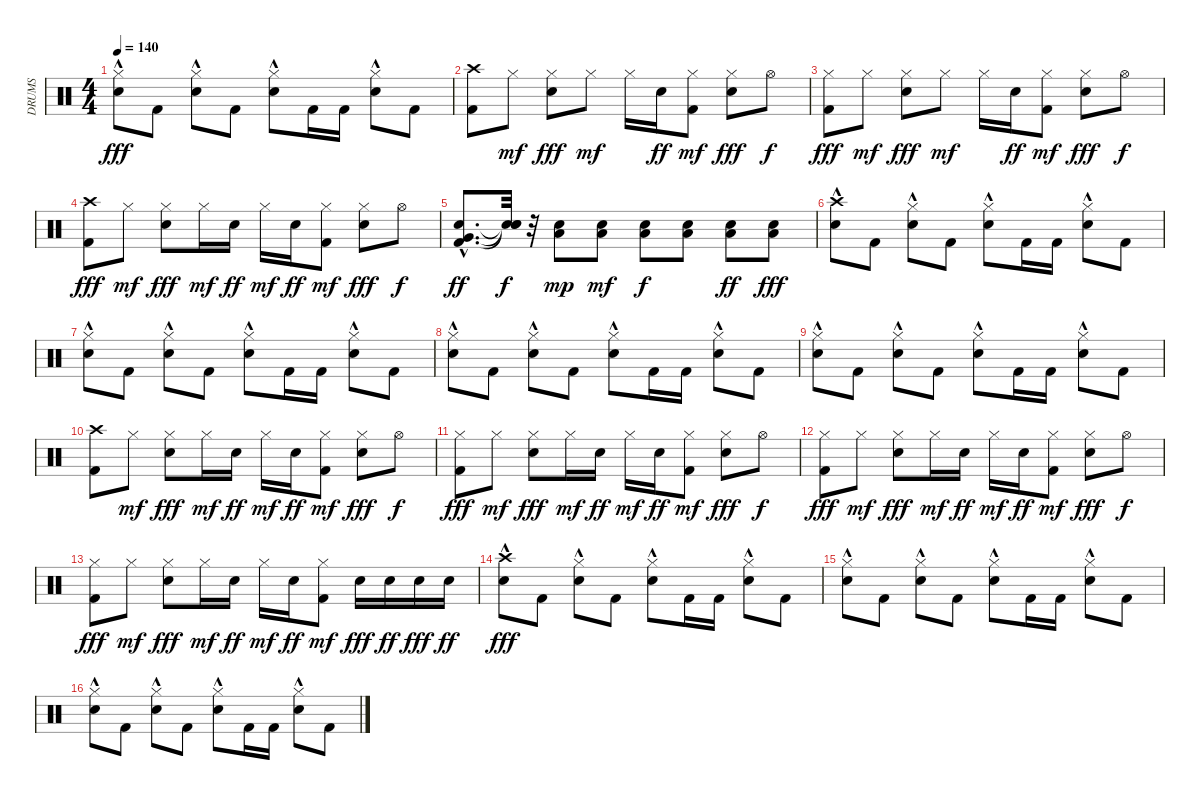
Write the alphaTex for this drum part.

\track ("DRUMS" "DRUMS") {instrument percussion}
\staff {score}
\articulation defaults
\ts (4 4)
\tempo 140
\clef neutral
\ks c
("Electric Snare (hit)"{hac} "Hi-Hat (closed)"{hac}).8{dy fff} "Kick (hit) 2".8 ("Electric Snare (hit)"{hac} "Hi-Hat (closed)"{hac}).8 "Kick (hit) 2".8 ("Electric Snare (hit)"{hac} "Hi-Hat (closed)"{hac}).8 "Kick (hit) 2".16 "Kick (hit) 2".16 ("Electric Snare (hit)"{hac} "Hi-Hat (closed)"{hac}).8 "Kick (hit) 2".8 |
("Kick (hit) 2" "Crash high (hit)").8 "Hi-Hat (closed)".8{dy mf} ("Hi-Hat (closed)" "Electric Snare (hit)").8{dy fff} "Hi-Hat (closed)".8{dy mf} "Hi-Hat (closed)".16 "Electric Snare (hit)".16{dy ff} ("Kick (hit) 2" "Hi-Hat (closed)").8{dy mf} ("Hi-Hat (closed)" "Electric Snare (hit)").8{dy fff} "Hi-Hat (open)".8{dy f} |
("Kick (hit) 2" "Hi-Hat (closed)").8{dy fff} "Hi-Hat (closed)".8{dy mf} ("Hi-Hat (closed)" "Electric Snare (hit)").8{dy fff} "Hi-Hat (closed)".8{dy mf} "Hi-Hat (closed)".16 "Electric Snare (hit)".16{dy ff} ("Kick (hit) 2" "Hi-Hat (closed)").8{dy mf} ("Hi-Hat (closed)" "Electric Snare (hit)").8{dy fff} "Hi-Hat (open)".8{dy f} |
("Kick (hit) 2" "Crash high (hit)").8{dy fff} "Hi-Hat (closed)".8{dy mf} ("Hi-Hat (closed)" "Electric Snare (hit)").8{dy fff} "Hi-Hat (closed)".16{dy mf} "Electric Snare (hit)".16{dy ff} "Hi-Hat (closed)".16{dy mf} "Electric Snare (hit)".16{dy ff} ("Kick (hit) 2" "Hi-Hat (closed)").8{dy mf} ("Hi-Hat (closed)" "Electric Snare (hit)").8{dy fff} "Hi-Hat (open)".8{dy f} |
("Kick (hit) 2"{hac} "Electric Snare (hit)"{hac} "Very Low Tom (hit)"{hac}).8{d dy ff} ("Snare (hit)"{t} "Snare (hit)"{t} "Snare (hit)"{t}).32{dy f} r.32 ("Low Tom (hit)" "Electric Snare (hit)").8{dy mp} ("Low Tom (hit)" "Electric Snare (hit)").8{dy mf} ("Low Tom (hit)" "Electric Snare (hit)").8{dy f} ("Low Tom (hit)" "Electric Snare (hit)").8 ("Low Tom (hit)" "Electric Snare (hit)").8{dy ff} ("Low Tom (hit)" "Electric Snare (hit)").8{dy fff} |
("Electric Snare (hit)"{hac} "Crash high (hit)"{hac}).8 "Kick (hit) 2".8 ("Electric Snare (hit)"{hac} "Hi-Hat (closed)"{hac}).8 "Kick (hit) 2".8 ("Electric Snare (hit)"{hac} "Hi-Hat (closed)"{hac}).8 "Kick (hit) 2".16 "Kick (hit) 2".16 ("Electric Snare (hit)"{hac} "Hi-Hat (closed)"{hac}).8 "Kick (hit) 2".8 |
("Electric Snare (hit)"{hac} "Hi-Hat (closed)"{hac}).8 "Kick (hit) 2".8 ("Electric Snare (hit)"{hac} "Hi-Hat (closed)"{hac}).8 "Kick (hit) 2".8 ("Electric Snare (hit)"{hac} "Hi-Hat (closed)"{hac}).8 "Kick (hit) 2".16 "Kick (hit) 2".16 ("Electric Snare (hit)"{hac} "Hi-Hat (closed)"{hac}).8 "Kick (hit) 2".8 |
("Electric Snare (hit)"{hac} "Hi-Hat (closed)"{hac}).8 "Kick (hit) 2".8 ("Electric Snare (hit)"{hac} "Hi-Hat (closed)"{hac}).8 "Kick (hit) 2".8 ("Electric Snare (hit)"{hac} "Hi-Hat (closed)"{hac}).8 "Kick (hit) 2".16 "Kick (hit) 2".16 ("Electric Snare (hit)"{hac} "Hi-Hat (closed)"{hac}).8 "Kick (hit) 2".8 |
("Electric Snare (hit)"{hac} "Hi-Hat (closed)"{hac}).8 "Kick (hit) 2".8 ("Electric Snare (hit)"{hac} "Hi-Hat (closed)"{hac}).8 "Kick (hit) 2".8 ("Electric Snare (hit)"{hac} "Hi-Hat (closed)"{hac}).8 "Kick (hit) 2".16 "Kick (hit) 2".16 ("Electric Snare (hit)"{hac} "Hi-Hat (closed)"{hac}).8 "Kick (hit) 2".8 |
("Kick (hit) 2" "Crash high (hit)").8 "Hi-Hat (closed)".8{dy mf} ("Hi-Hat (closed)" "Electric Snare (hit)").8{dy fff} "Hi-Hat (closed)".16{dy mf} "Electric Snare (hit)".16{dy ff} "Hi-Hat (closed)".16{dy mf} "Electric Snare (hit)".16{dy ff} ("Kick (hit) 2" "Hi-Hat (closed)").8{dy mf} ("Hi-Hat (closed)" "Electric Snare (hit)").8{dy fff} "Hi-Hat (open)".8{dy f} |
("Kick (hit) 2" "Hi-Hat (closed)").8{dy fff} "Hi-Hat (closed)".8{dy mf} ("Hi-Hat (closed)" "Electric Snare (hit)").8{dy fff} "Hi-Hat (closed)".16{dy mf} "Electric Snare (hit)".16{dy ff} "Hi-Hat (closed)".16{dy mf} "Electric Snare (hit)".16{dy ff} ("Kick (hit) 2" "Hi-Hat (closed)").8{dy mf} ("Hi-Hat (closed)" "Electric Snare (hit)").8{dy fff} "Hi-Hat (open)".8{dy f} |
("Kick (hit) 2" "Hi-Hat (closed)").8{dy fff} "Hi-Hat (closed)".8{dy mf} ("Hi-Hat (closed)" "Electric Snare (hit)").8{dy fff} "Hi-Hat (closed)".16{dy mf} "Electric Snare (hit)".16{dy ff} "Hi-Hat (closed)".16{dy mf} "Electric Snare (hit)".16{dy ff} ("Kick (hit) 2" "Hi-Hat (closed)").8{dy mf} ("Hi-Hat (closed)" "Electric Snare (hit)").8{dy fff} "Hi-Hat (open)".8{dy f} |
("Kick (hit) 2" "Hi-Hat (closed)").8{dy fff} "Hi-Hat (closed)".8{dy mf} ("Hi-Hat (closed)" "Electric Snare (hit)").8{dy fff} "Hi-Hat (closed)".16{dy mf} "Electric Snare (hit)".16{dy ff} "Hi-Hat (closed)".16{dy mf} "Electric Snare (hit)".16{dy ff} ("Kick (hit) 2" "Hi-Hat (closed)").8{dy mf} "Electric Snare (hit)".16{dy fff} "Electric Snare (hit)".16{dy ff} "Electric Snare (hit)".16{dy fff} "Electric Snare (hit)".16{dy ff} |
("Electric Snare (hit)"{hac} "Crash high (hit)"{hac}).8{dy fff} "Kick (hit) 2".8 ("Electric Snare (hit)"{hac} "Hi-Hat (closed)"{hac}).8 "Kick (hit) 2".8 ("Electric Snare (hit)"{hac} "Hi-Hat (closed)"{hac}).8 "Kick (hit) 2".16 "Kick (hit) 2".16 ("Electric Snare (hit)"{hac} "Hi-Hat (closed)"{hac}).8 "Kick (hit) 2".8 |
("Electric Snare (hit)"{hac} "Hi-Hat (closed)"{hac}).8 "Kick (hit) 2".8 ("Electric Snare (hit)"{hac} "Hi-Hat (closed)"{hac}).8 "Kick (hit) 2".8 ("Electric Snare (hit)"{hac} "Hi-Hat (closed)"{hac}).8 "Kick (hit) 2".16 "Kick (hit) 2".16 ("Electric Snare (hit)"{hac} "Hi-Hat (closed)"{hac}).8 "Kick (hit) 2".8 |
("Electric Snare (hit)"{hac} "Hi-Hat (closed)"{hac}).8 "Kick (hit) 2".8 ("Electric Snare (hit)"{hac} "Hi-Hat (closed)"{hac}).8 "Kick (hit) 2".8 ("Electric Snare (hit)"{hac} "Hi-Hat (closed)"{hac}).8 "Kick (hit) 2".16 "Kick (hit) 2".16 ("Electric Snare (hit)"{hac} "Hi-Hat (closed)"{hac}).8 "Kick (hit) 2".8
